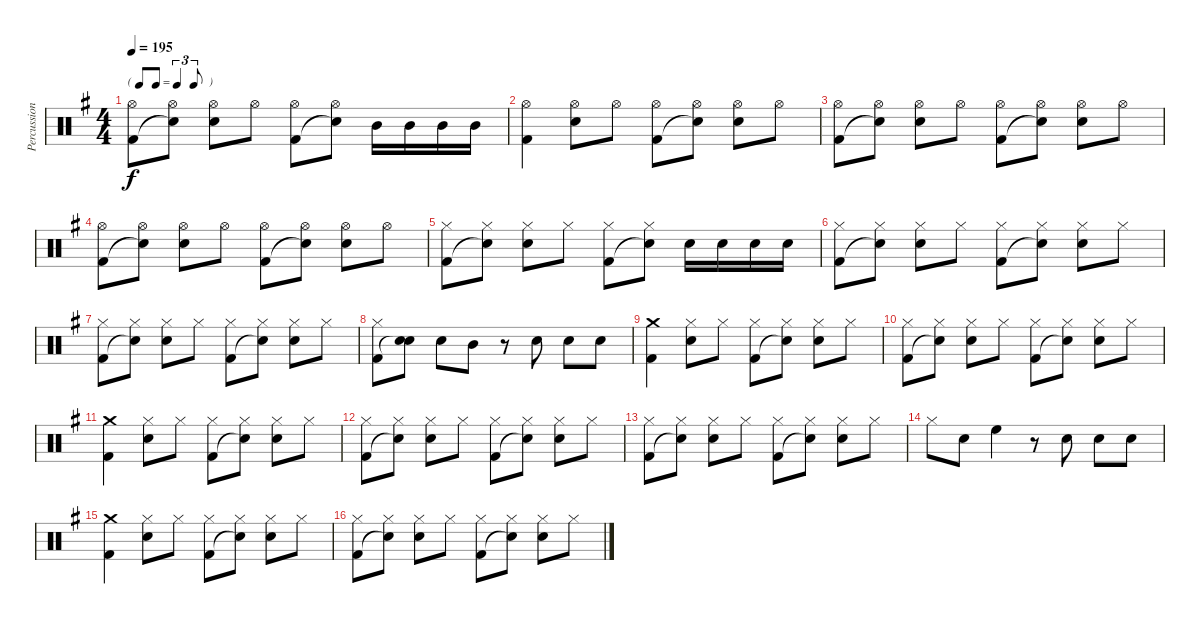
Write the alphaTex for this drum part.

\track ("Percussion" "Percussion") {instrument percussion}
\staff {score}
\articulation defaults
\ts (4 4)
\tf triplet8th
\tempo 195
\clef neutral
\ks g
("Hi-Hat (open)" "Kick (hit) 2").8{dy f} ("Hi-Hat (open)" "Snare (hit)"{t}).8 ("Hi-Hat (open)" "Snare (hit) 2").8 "Hi-Hat (open)".8 ("Hi-Hat (open)" "Kick (hit) 2").8 ("Hi-Hat (open)" "Snare (hit)"{t}).8 "Mid Tom (hit)".16 "Mid Tom (hit)".16 "Mid Tom (hit)".16 "Mid Tom (hit)".16 |
("Hi-Hat (open)" "Kick (hit) 2").4 ("Hi-Hat (open)" "Snare (hit) 2").8 "Hi-Hat (open)".8 ("Hi-Hat (open)" "Kick (hit) 2").8 ("Hi-Hat (open)" "Snare (hit)"{t}).8 ("Hi-Hat (open)" "Snare (hit) 2").8 "Hi-Hat (open)".8 |
("Hi-Hat (open)" "Kick (hit) 2").8 ("Hi-Hat (open)" "Snare (hit)"{t}).8 ("Hi-Hat (open)" "Snare (hit) 2").8 "Hi-Hat (open)".8 ("Hi-Hat (open)" "Kick (hit) 2").8 ("Hi-Hat (open)" "Snare (hit)"{t}).8 ("Hi-Hat (open)" "Snare (hit) 2").8 "Hi-Hat (open)".8 |
("Hi-Hat (open)" "Kick (hit) 2").8 ("Hi-Hat (open)" "Snare (hit)"{t}).8 ("Hi-Hat (open)" "Snare (hit) 2").8 "Hi-Hat (open)".8 ("Hi-Hat (open)" "Kick (hit) 2").8 ("Hi-Hat (open)" "Snare (hit)"{t}).8 ("Hi-Hat (open)" "Snare (hit) 2").8 "Hi-Hat (open)".8 |
("Hi-Hat (closed)" "Kick (hit) 2").8 ("Hi-Hat (closed)" "Snare (hit)"{t}).8 ("Hi-Hat (closed)" "Snare (hit) 2").8 "Hi-Hat (closed)".8 ("Hi-Hat (closed)" "Kick (hit) 2").8 ("Hi-Hat (closed)" "Snare (hit)"{t}).8 "Snare (hit) 2".16 "Snare (hit) 2".16 "Snare (hit) 2".16 "Snare (hit) 2".16 |
("Hi-Hat (closed)" "Kick (hit) 2").8 ("Hi-Hat (closed)" "Snare (hit)"{t}).8 ("Hi-Hat (closed)" "Snare (hit) 2").8 "Hi-Hat (closed)".8 ("Hi-Hat (closed)" "Kick (hit) 2").8 ("Hi-Hat (closed)" "Snare (hit)"{t}).8 ("Hi-Hat (closed)" "Snare (hit) 2").8 "Hi-Hat (closed)".8 |
("Hi-Hat (closed)" "Kick (hit) 2").8 ("Hi-Hat (closed)" "Snare (hit)"{t}).8 ("Hi-Hat (closed)" "Snare (hit) 2").8 "Hi-Hat (closed)".8 ("Hi-Hat (closed)" "Kick (hit) 2").8 ("Hi-Hat (closed)" "Snare (hit)"{t}).8 ("Hi-Hat (closed)" "Snare (hit) 2").8 "Hi-Hat (closed)".8 |
("Hi-Hat (closed)" "Kick (hit) 2").8 ("Snare (hit) 2" "Snare (hit)"{t}).8 "Snare (hit) 2".8 "Mid Tom (hit)".8 r.8 "Snare (hit) 2".8 "Snare (hit) 2".8 "Snare (hit) 2".8 |
("Crash medium (hit)" "Kick (hit) 2").4 ("Hi-Hat (closed)" "Snare (hit) 2").8 "Hi-Hat (closed)".8 ("Hi-Hat (closed)" "Kick (hit) 2").8 ("Hi-Hat (closed)" "Snare (hit)"{t}).8 ("Hi-Hat (closed)" "Snare (hit) 2").8 "Hi-Hat (closed)".8 |
("Hi-Hat (closed)" "Kick (hit) 2").8 ("Hi-Hat (closed)" "Snare (hit)"{t}).8 ("Hi-Hat (closed)" "Snare (hit) 2").8 "Hi-Hat (closed)".8 ("Hi-Hat (closed)" "Kick (hit) 2").8 ("Hi-Hat (closed)" "Snare (hit)"{t}).8 ("Hi-Hat (closed)" "Snare (hit) 2").8 "Hi-Hat (closed)".8 |
("Crash medium (hit)" "Kick (hit) 2").4 ("Hi-Hat (closed)" "Snare (hit) 2").8 "Hi-Hat (closed)".8 ("Hi-Hat (closed)" "Kick (hit) 2").8 ("Hi-Hat (closed)" "Snare (hit)"{t}).8 ("Hi-Hat (closed)" "Snare (hit) 2").8 "Hi-Hat (closed)".8 |
("Hi-Hat (closed)" "Kick (hit) 2").8 ("Hi-Hat (closed)" "Snare (hit)"{t}).8 ("Hi-Hat (closed)" "Snare (hit) 2").8 "Hi-Hat (closed)".8 ("Hi-Hat (closed)" "Kick (hit) 2").8 ("Hi-Hat (closed)" "Snare (hit)"{t}).8 ("Hi-Hat (closed)" "Snare (hit) 2").8 "Hi-Hat (closed)".8 |
("Hi-Hat (closed)" "Kick (hit) 2").8 ("Hi-Hat (closed)" "Snare (hit)"{t}).8 ("Hi-Hat (closed)" "Snare (hit) 2").8 "Hi-Hat (closed)".8 ("Hi-Hat (closed)" "Kick (hit) 2").8 ("Hi-Hat (closed)" "Snare (hit)"{t}).8 ("Hi-Hat (closed)" "Snare (hit) 2").8 "Hi-Hat (closed)".8 |
"Hi-Hat (closed)".8 "Snare (hit) 2".8 "High Floor Tom (hit)".4 r.8 "Snare (hit) 2".8 "Snare (hit) 2".8 "Snare (hit) 2".8 |
("Crash medium (hit)" "Kick (hit) 2").4 ("Hi-Hat (closed)" "Snare (hit) 2").8 "Hi-Hat (closed)".8 ("Hi-Hat (closed)" "Kick (hit) 2").8 ("Hi-Hat (closed)" "Snare (hit)"{t}).8 ("Hi-Hat (closed)" "Snare (hit) 2").8 "Hi-Hat (closed)".8 |
("Hi-Hat (closed)" "Kick (hit) 2").8 ("Hi-Hat (closed)" "Snare (hit)"{t}).8 ("Hi-Hat (closed)" "Snare (hit) 2").8 "Hi-Hat (closed)".8 ("Hi-Hat (closed)" "Kick (hit) 2").8 ("Hi-Hat (closed)" "Snare (hit)"{t}).8 ("Hi-Hat (closed)" "Snare (hit) 2").8 "Hi-Hat (closed)".8
